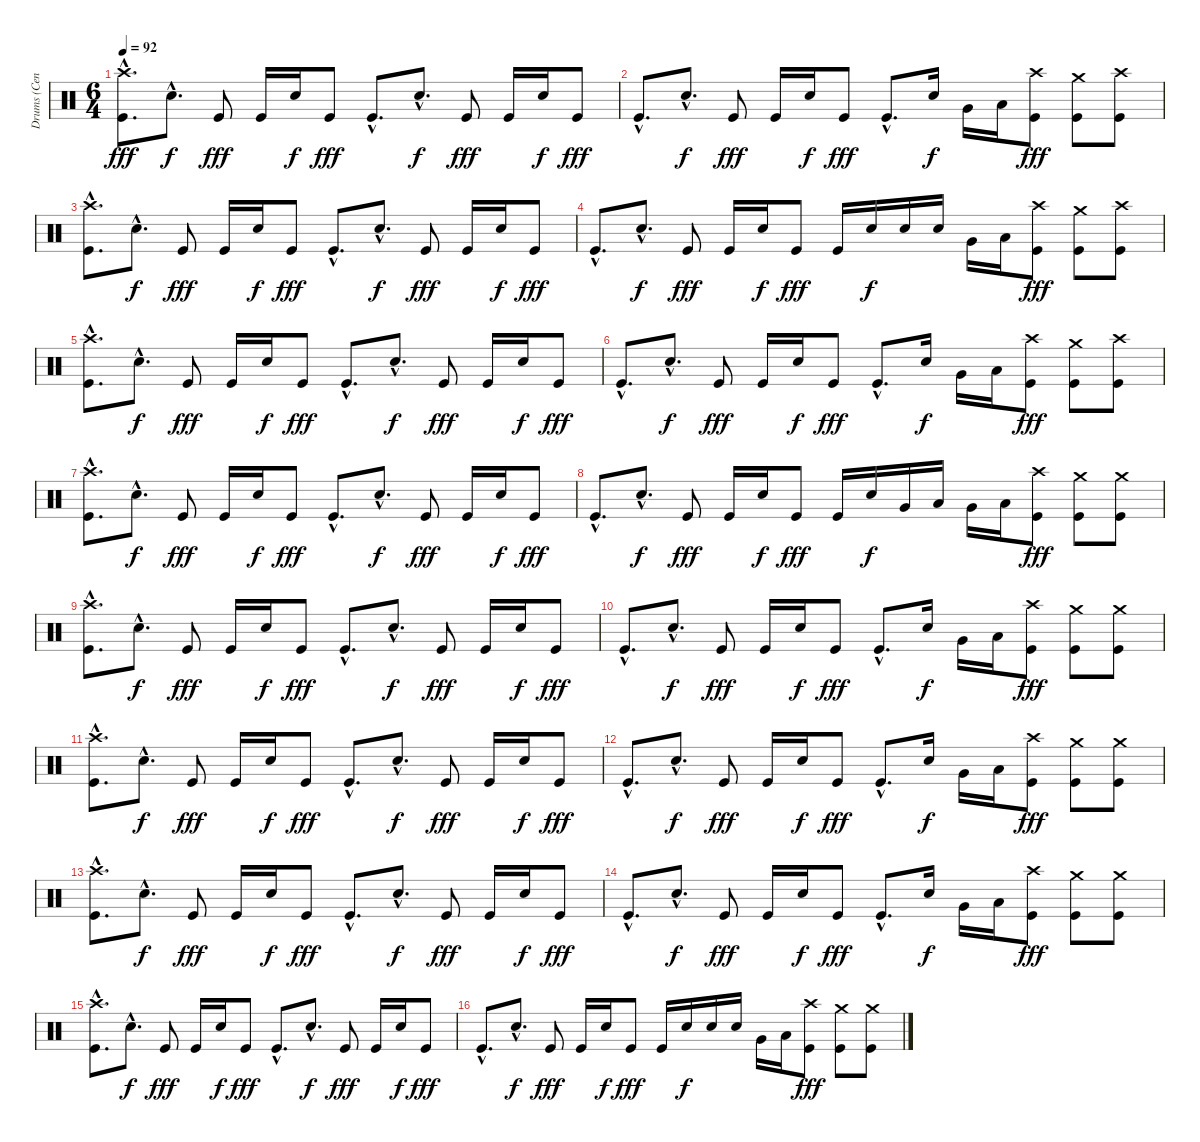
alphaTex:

\track ("Drums (Cenk)" "Drums (Cen") {instrument percussion}
\staff {score}
\articulation defaults
\ts (6 4)
\tempo 92
\clef neutral
\ks c
("Crash high (hit)"{hac} "Kick (hit)"{hac}).8{d dy fff} "Snare (hit) 2"{hac}.8{d dy f} "Kick (hit)".8{dy fff} "Kick (hit)".16 "Snare (hit) 2".16{dy f} "Kick (hit)".8{dy fff} "Kick (hit)"{hac}.8{d} "Snare (hit) 2"{hac}.8{d dy f} "Kick (hit)".8{dy fff} "Kick (hit)".16 "Snare (hit) 2".16{dy f} "Kick (hit)".8{dy fff} |
"Kick (hit)"{hac}.8{d} "Snare (hit) 2"{hac}.8{d dy f} "Kick (hit)".8{dy fff} "Kick (hit)".16 "Snare (hit) 2".16{dy f} "Kick (hit)".8{dy fff} "Kick (hit)"{hac}.8{d} "Snare (hit) 2".16{dy f} "Very Low Tom (hit)".16 "Low Floor Tom (hit)".16 ("Crash high (hit)" "Kick (hit)").8{dy fff} ("Crash medium (hit)" "Kick (hit)").8 ("Crash high (hit)" "Kick (hit)").8 |
("Crash high (hit)"{hac} "Kick (hit)"{hac}).8{d} "Snare (hit) 2"{hac}.8{d dy f} "Kick (hit)".8{dy fff} "Kick (hit)".16 "Snare (hit) 2".16{dy f} "Kick (hit)".8{dy fff} "Kick (hit)"{hac}.8{d} "Snare (hit) 2"{hac}.8{d dy f} "Kick (hit)".8{dy fff} "Kick (hit)".16 "Snare (hit) 2".16{dy f} "Kick (hit)".8{dy fff} |
"Kick (hit)"{hac}.8{d} "Snare (hit) 2"{hac}.8{d dy f} "Kick (hit)".8{dy fff} "Kick (hit)".16 "Snare (hit) 2".16{dy f} "Kick (hit)".8{dy fff} "Kick (hit)".16 "Snare (hit) 2".16{dy f} "Snare (hit) 2".16 "Snare (hit) 2".16 "Very Low Tom (hit)".16 "Low Floor Tom (hit)".16 ("Crash high (hit)" "Kick (hit)").8{dy fff} ("Crash medium (hit)" "Kick (hit)").8 ("Crash high (hit)" "Kick (hit)").8 |
("Crash high (hit)"{hac} "Kick (hit)"{hac}).8{d} "Snare (hit) 2"{hac}.8{d dy f} "Kick (hit)".8{dy fff} "Kick (hit)".16 "Snare (hit) 2".16{dy f} "Kick (hit)".8{dy fff} "Kick (hit)"{hac}.8{d} "Snare (hit) 2"{hac}.8{d dy f} "Kick (hit)".8{dy fff} "Kick (hit)".16 "Snare (hit) 2".16{dy f} "Kick (hit)".8{dy fff} |
"Kick (hit)"{hac}.8{d} "Snare (hit) 2"{hac}.8{d dy f} "Kick (hit)".8{dy fff} "Kick (hit)".16 "Snare (hit) 2".16{dy f} "Kick (hit)".8{dy fff} "Kick (hit)"{hac}.8{d} "Snare (hit) 2".16{dy f} "Very Low Tom (hit)".16 "Low Floor Tom (hit)".16 ("Crash high (hit)" "Kick (hit)").8{dy fff} ("Crash medium (hit)" "Kick (hit)").8 ("Crash high (hit)" "Kick (hit)").8 |
("Crash high (hit)"{hac} "Kick (hit)"{hac}).8{d} "Snare (hit) 2"{hac}.8{d dy f} "Kick (hit)".8{dy fff} "Kick (hit)".16 "Snare (hit) 2".16{dy f} "Kick (hit)".8{dy fff} "Kick (hit)"{hac}.8{d} "Snare (hit) 2"{hac}.8{d dy f} "Kick (hit)".8{dy fff} "Kick (hit)".16 "Snare (hit) 2".16{dy f} "Kick (hit)".8{dy fff} |
"Kick (hit)"{hac}.8{d} "Snare (hit) 2"{hac}.8{d dy f} "Kick (hit)".8{dy fff} "Kick (hit)".16 "Snare (hit) 2".16{dy f} "Kick (hit)".8{dy fff} "Kick (hit)".16 "Snare (hit) 2".16{dy f} "Very Low Tom (hit)".16 "Low Tom (hit)".16 "Very Low Tom (hit)".16 "Low Floor Tom (hit)".16 ("Crash high (hit)" "Kick (hit)").8{dy fff} ("Crash medium (hit)" "Kick (hit)").8 ("Crash medium (hit)" "Kick (hit)").8 |
("Crash high (hit)"{hac} "Kick (hit)"{hac}).8{d} "Snare (hit) 2"{hac}.8{d dy f} "Kick (hit)".8{dy fff} "Kick (hit)".16 "Snare (hit) 2".16{dy f} "Kick (hit)".8{dy fff} "Kick (hit)"{hac}.8{d} "Snare (hit) 2"{hac}.8{d dy f} "Kick (hit)".8{dy fff} "Kick (hit)".16 "Snare (hit) 2".16{dy f} "Kick (hit)".8{dy fff} |
"Kick (hit)"{hac}.8{d} "Snare (hit) 2"{hac}.8{d dy f} "Kick (hit)".8{dy fff} "Kick (hit)".16 "Snare (hit) 2".16{dy f} "Kick (hit)".8{dy fff} "Kick (hit)"{hac}.8{d} "Snare (hit) 2".16{dy f} "Very Low Tom (hit)".16 "Low Floor Tom (hit)".16 ("Crash high (hit)" "Kick (hit)").8{dy fff} ("Crash medium (hit)" "Kick (hit)").8 ("Crash medium (hit)" "Kick (hit)").8 |
("Crash high (hit)"{hac} "Kick (hit)"{hac}).8{d} "Snare (hit) 2"{hac}.8{d dy f} "Kick (hit)".8{dy fff} "Kick (hit)".16 "Snare (hit) 2".16{dy f} "Kick (hit)".8{dy fff} "Kick (hit)"{hac}.8{d} "Snare (hit) 2"{hac}.8{d dy f} "Kick (hit)".8{dy fff} "Kick (hit)".16 "Snare (hit) 2".16{dy f} "Kick (hit)".8{dy fff} |
"Kick (hit)"{hac}.8{d} "Snare (hit) 2"{hac}.8{d dy f} "Kick (hit)".8{dy fff} "Kick (hit)".16 "Snare (hit) 2".16{dy f} "Kick (hit)".8{dy fff} "Kick (hit)"{hac}.8{d} "Snare (hit) 2".16{dy f} "Very Low Tom (hit)".16 "Low Floor Tom (hit)".16 ("Crash high (hit)" "Kick (hit)").8{dy fff} ("Crash medium (hit)" "Kick (hit)").8 ("Crash medium (hit)" "Kick (hit)").8 |
("Crash high (hit)"{hac} "Kick (hit)"{hac}).8{d} "Snare (hit) 2"{hac}.8{d dy f} "Kick (hit)".8{dy fff} "Kick (hit)".16 "Snare (hit) 2".16{dy f} "Kick (hit)".8{dy fff} "Kick (hit)"{hac}.8{d} "Snare (hit) 2"{hac}.8{d dy f} "Kick (hit)".8{dy fff} "Kick (hit)".16 "Snare (hit) 2".16{dy f} "Kick (hit)".8{dy fff} |
"Kick (hit)"{hac}.8{d} "Snare (hit) 2"{hac}.8{d dy f} "Kick (hit)".8{dy fff} "Kick (hit)".16 "Snare (hit) 2".16{dy f} "Kick (hit)".8{dy fff} "Kick (hit)"{hac}.8{d} "Snare (hit) 2".16{dy f} "Very Low Tom (hit)".16 "Low Floor Tom (hit)".16 ("Crash high (hit)" "Kick (hit)").8{dy fff} ("Crash medium (hit)" "Kick (hit)").8 ("Crash medium (hit)" "Kick (hit)").8 |
("Crash high (hit)"{hac} "Kick (hit)"{hac}).8{d} "Snare (hit) 2"{hac}.8{d dy f} "Kick (hit)".8{dy fff} "Kick (hit)".16 "Snare (hit) 2".16{dy f} "Kick (hit)".8{dy fff} "Kick (hit)"{hac}.8{d} "Snare (hit) 2"{hac}.8{d dy f} "Kick (hit)".8{dy fff} "Kick (hit)".16 "Snare (hit) 2".16{dy f} "Kick (hit)".8{dy fff} |
"Kick (hit)"{hac}.8{d} "Snare (hit) 2"{hac}.8{d dy f} "Kick (hit)".8{dy fff} "Kick (hit)".16 "Snare (hit) 2".16{dy f} "Kick (hit)".8{dy fff} "Kick (hit)".16 "Snare (hit) 2".16{dy f} "Snare (hit) 2".16 "Snare (hit) 2".16 "Very Low Tom (hit)".16 "Low Floor Tom (hit)".16 ("Crash high (hit)" "Kick (hit)").8{dy fff} ("Crash medium (hit)" "Kick (hit)").8 ("Crash medium (hit)" "Kick (hit)").8
